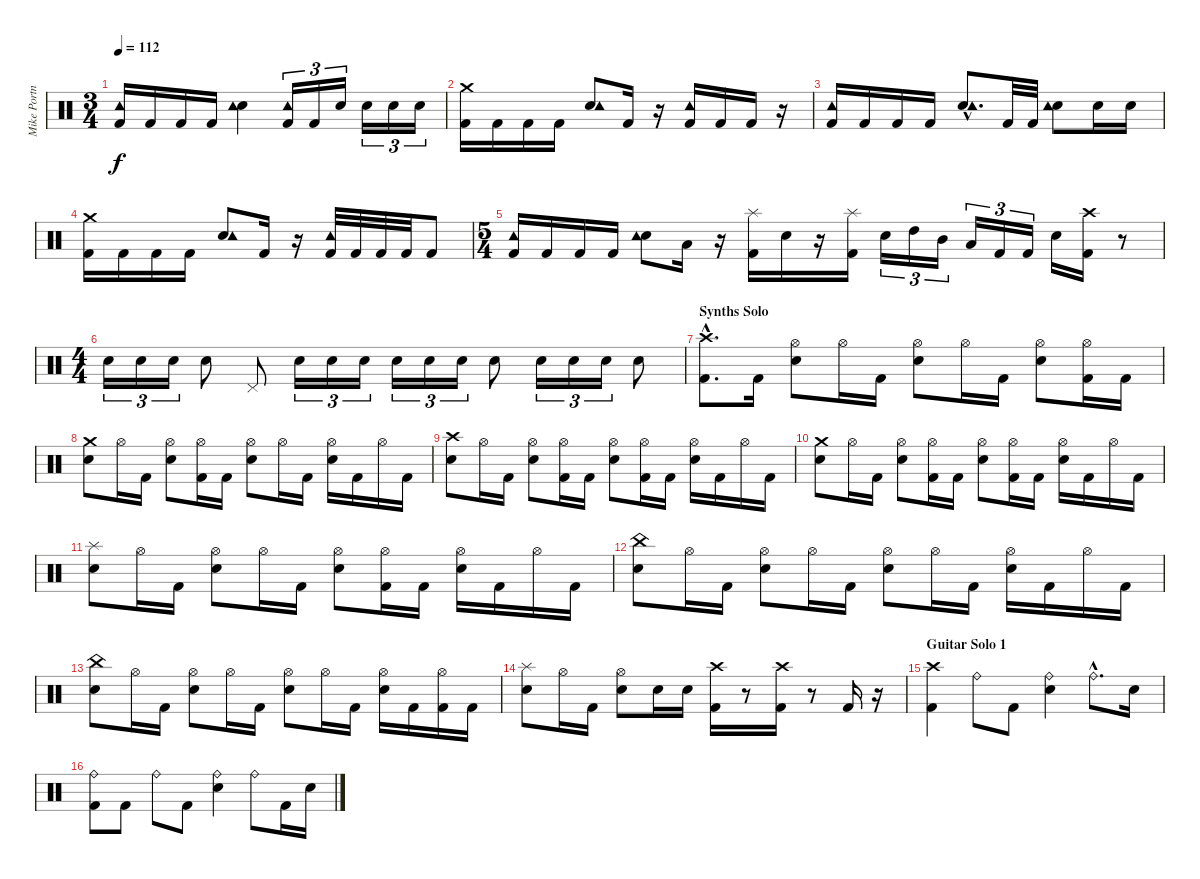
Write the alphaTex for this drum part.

\track ("Mike Portnoy" "Mike Portn") {instrument percussion}
\staff {score}
\articulation defaults
\ts (3 4)
\tempo 112
\clef neutral
\ks c
("Kick (hit) 2" "Tambourine (hit)").16{dy f} "Kick (hit) 2".16 "Kick (hit) 2".16 "Kick (hit) 2".16 ("Electric Snare (hit)" "Tambourine (hit)").4 ("Kick (hit) 2" "Tambourine (hit)").16{tu (3 2)} "Kick (hit) 2".16{tu (3 2)} "Electric Snare (hit)".16{tu (3 2)} "Electric Snare (hit)".16{tu (3 2)} "Electric Snare (hit)".16{tu (3 2)} "Electric Snare (hit)".16{tu (3 2)} |
("Kick (hit) 2" "Crash medium (hit)").16 "Kick (hit) 2".16 "Kick (hit) 2".16 "Kick (hit) 2".16 ("Electric Snare (hit)" "Tambourine (hit)").8 "Kick (hit) 2".16 r.16 ("Kick (hit) 2" "Tambourine (hit)").16 "Kick (hit) 2".16 "Kick (hit) 2".16 r.16 |
("Kick (hit) 2" "Tambourine (hit)").16 "Kick (hit) 2".16 "Kick (hit) 2".16 "Kick (hit) 2".16 ("Electric Snare (hit)"{hac} "Tambourine (hit)"{hac}).8{d} "Kick (hit) 2".32 "Kick (hit) 2".32 ("Electric Snare (hit)" "Tambourine (hit)").8 "Electric Snare (hit)".16 "Electric Snare (hit)".16 |
("Kick (hit) 2" "Crash medium (hit)").16 "Kick (hit) 2".16 "Kick (hit) 2".16 "Kick (hit) 2".16 ("Electric Snare (hit)" "Tambourine (hit)").8 "Kick (hit) 2".16 r.16 ("Kick (hit) 2" "Tambourine (hit)").32 "Kick (hit) 2".32 "Kick (hit) 2".32 "Kick (hit) 2".32 "Kick (hit) 2".8 |
\ts (5 4)
("Kick (hit) 2" "Tambourine (hit)").16 "Kick (hit) 2".16 "Kick (hit) 2".16 "Kick (hit) 2".16 ("Electric Snare (hit)" "Tambourine (hit)").8 "Low Tom (hit)".16 r.16 ("Kick (hit) 2" "Splash (hit)").16 "Electric Snare (hit)".16 r.16 ("Kick (hit) 2" "Splash (hit)").16 "Electric Snare (hit)".16{tu (3 2)} "High Tom (hit)".16{tu (3 2)} "Mid Tom (hit)".16{tu (3 2)} "Low Tom (hit)".16{tu (3 2)} "Kick (hit) 2".16{tu (3 2)} "Kick (hit) 2".16{tu (3 2)} "Electric Snare (hit)".16 ("Kick (hit) 2" "Crash high (hit)").16 r.8 |
\ts (4 4)
"Electric Snare (hit)".16{tu (3 2)} "Electric Snare (hit)".16{tu (3 2)} "Electric Snare (hit)".16{tu (3 2)} "Electric Snare (hit)".8 "Pedal Hi-Hat (hit)".8 "Electric Snare (hit)".16{tu (3 2)} "Electric Snare (hit)".16{tu (3 2)} "Electric Snare (hit)".16{tu (3 2)} "Electric Snare (hit)".16{tu (3 2)} "Electric Snare (hit)".16{tu (3 2)} "Electric Snare (hit)".16{tu (3 2)} "Electric Snare (hit)".8 "Electric Snare (hit)".16{tu (3 2)} "Electric Snare (hit)".16{tu (3 2)} "Electric Snare (hit)".16{tu (3 2)} "Electric Snare (hit)".8 |
\section ("" "Synths Solo")
("Kick (hit) 2"{hac} "Crash high (hit)"{hac}).8{d} "Kick (hit) 2".16 ("Electric Snare (hit)" "Hi-Hat (open)").8 "Hi-Hat (open)".16 "Kick (hit) 2".16 ("Electric Snare (hit)" "Hi-Hat (open)").8 "Hi-Hat (open)".16 "Kick (hit) 2".16 ("Electric Snare (hit)" "Hi-Hat (open)").8 ("Kick (hit) 2" "Hi-Hat (open)").16 "Kick (hit) 2".16 |
("Electric Snare (hit)" "Crash medium (hit)").8 "Hi-Hat (open)".16 "Kick (hit) 2".16 ("Electric Snare (hit)" "Hi-Hat (open)").8 ("Kick (hit) 2" "Hi-Hat (open)").16 "Kick (hit) 2".16 ("Electric Snare (hit)" "Hi-Hat (open)").8 "Hi-Hat (open)".16 "Kick (hit) 2".16 ("Electric Snare (hit)" "Hi-Hat (open)").16 "Kick (hit) 2".16 "Hi-Hat (open)".16 "Kick (hit) 2".16 |
("Electric Snare (hit)" "Crash high (hit)").8 "Hi-Hat (open)".16 "Kick (hit) 2".16 ("Electric Snare (hit)" "Hi-Hat (open)").8 ("Kick (hit) 2" "Hi-Hat (open)").16 "Kick (hit) 2".16 ("Electric Snare (hit)" "Hi-Hat (open)").8 ("Kick (hit) 2" "Hi-Hat (open)").16 "Kick (hit) 2".16 ("Electric Snare (hit)" "Hi-Hat (open)").16 "Kick (hit) 2".16 "Hi-Hat (open)".16 "Kick (hit) 2".16 |
("Electric Snare (hit)" "Crash medium (hit)").8 "Hi-Hat (open)".16 "Kick (hit) 2".16 ("Electric Snare (hit)" "Hi-Hat (open)").8 ("Kick (hit) 2" "Hi-Hat (open)").16 "Kick (hit) 2".16 ("Electric Snare (hit)" "Hi-Hat (open)").8 ("Kick (hit) 2" "Hi-Hat (open)").16 "Kick (hit) 2".16 ("Electric Snare (hit)" "Hi-Hat (open)").16 "Kick (hit) 2".16 "Hi-Hat (open)".16 "Kick (hit) 2".16 |
("Electric Snare (hit)" "Splash (hit)").8 "Hi-Hat (open)".16 "Kick (hit) 2".16 ("Electric Snare (hit)" "Hi-Hat (open)").8 "Hi-Hat (open)".16 "Kick (hit) 2".16 ("Electric Snare (hit)" "Hi-Hat (open)").8 ("Kick (hit) 2" "Hi-Hat (open)").16 "Kick (hit) 2".16 ("Electric Snare (hit)" "Hi-Hat (open)").16 "Kick (hit) 2".16 "Hi-Hat (open)".16 "Kick (hit) 2".16 |
("Electric Snare (hit)" "China (hit)").8 "Hi-Hat (open)".16 "Kick (hit) 2".16 ("Electric Snare (hit)" "Hi-Hat (open)").8 "Hi-Hat (open)".16 "Kick (hit) 2".16 ("Electric Snare (hit)" "Hi-Hat (open)").8 "Hi-Hat (open)".16 "Kick (hit) 2".16 ("Electric Snare (hit)" "Hi-Hat (open)").16 "Kick (hit) 2".16 "Hi-Hat (open)".16 "Kick (hit) 2".16 |
("Electric Snare (hit)" "China (hit)").8 "Hi-Hat (open)".16 "Kick (hit) 2".16 ("Electric Snare (hit)" "Hi-Hat (open)").8 "Hi-Hat (open)".16 "Kick (hit) 2".16 ("Electric Snare (hit)" "Hi-Hat (open)").8 "Hi-Hat (open)".16 "Kick (hit) 2".16 ("Electric Snare (hit)" "Hi-Hat (open)").16 "Kick (hit) 2".16 ("Kick (hit) 2" "Hi-Hat (open)").16 "Kick (hit) 2".16 |
("Electric Snare (hit)" "Splash (hit)").8 "Hi-Hat (open)".16 "Kick (hit) 2".16 ("Electric Snare (hit)" "Hi-Hat (open)").8 "Electric Snare (hit)".16 "Electric Snare (hit)".16 ("Kick (hit) 2" "Crash high (hit)").16 r.8 ("Kick (hit) 2" "Crash high (hit)").16 r.8 "Kick (hit) 2".16 r.16 |
\section ("" "Guitar Solo 1")
("Kick (hit) 2" "Crash high (hit)").4 "Ride (bell)".8 "Kick (hit) 2".8 ("Electric Snare (hit)" "Ride (bell)").4 "Ride (bell)"{hac}.8{d} "Electric Snare (hit)".16 |
("Kick (hit) 2" "Ride (bell)").8 "Kick (hit) 2".8 "Ride (bell)".8 "Kick (hit) 2".8 ("Electric Snare (hit)" "Ride (bell)").4 "Ride (bell)".8 "Kick (hit) 2".16 "Electric Snare (hit)".16
